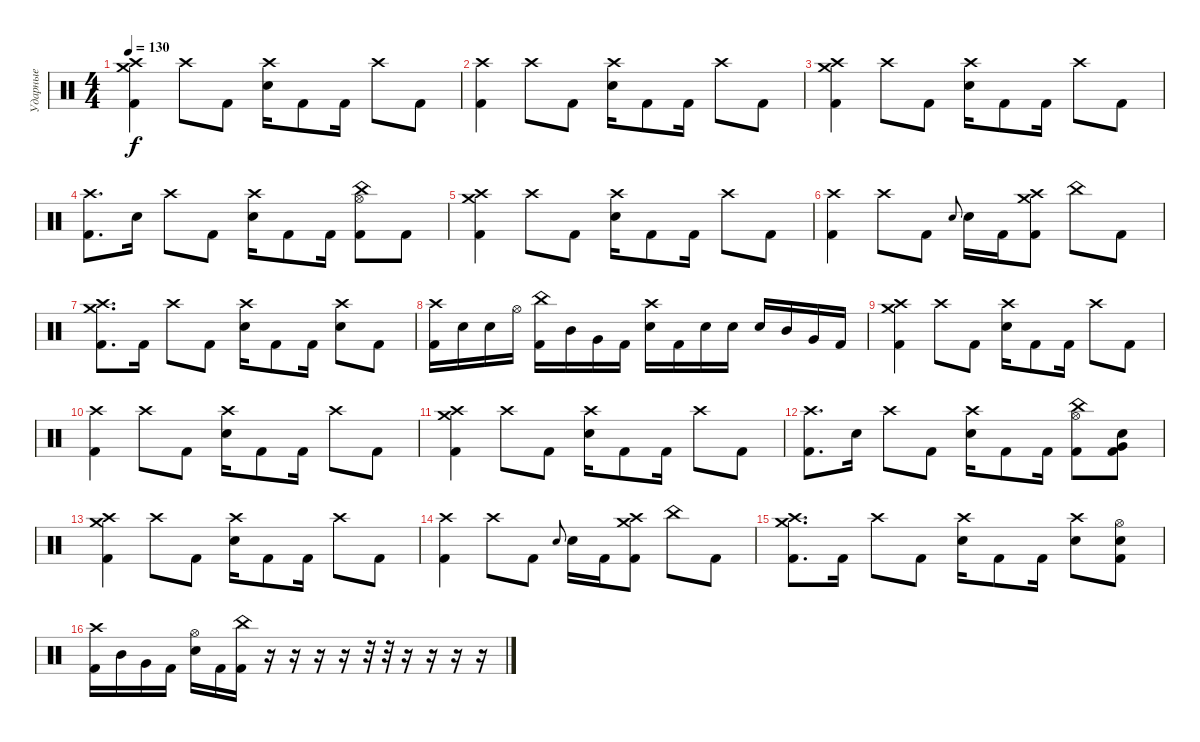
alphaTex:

\track ("Ударные" "Ударные") {instrument percussion}
\staff {score}
\articulation defaults
\ts (4 4)
\tempo 130
\clef neutral
\ks c
("Crash high (hit)" "Crash medium (hit)" "Kick (hit) 2").4{dy f} "Crash high (hit)".8 "Kick (hit) 2".8 ("Crash high (hit)" "Electric Snare (hit)").16 "Kick (hit) 2".8 "Kick (hit) 2".16 "Crash high (hit)".8 "Kick (hit) 2".8 |
("Crash high (hit)" "Kick (hit) 2").4 "Crash high (hit)".8 "Kick (hit) 2".8 ("Crash high (hit)" "Electric Snare (hit)").16 "Kick (hit) 2".8 "Kick (hit) 2".16 "Crash high (hit)".8 "Kick (hit) 2".8 |
("Crash high (hit)" "Crash medium (hit)" "Kick (hit) 2").4 "Crash high (hit)".8 "Kick (hit) 2".8 ("Crash high (hit)" "Electric Snare (hit)").16 "Kick (hit) 2".8 "Kick (hit) 2".16 "Crash high (hit)".8 "Kick (hit) 2".8 |
("Crash high (hit)" "Kick (hit) 2").8{d} "Electric Snare (hit)".16 "Crash high (hit)".8 "Kick (hit) 2".8 ("Crash high (hit)" "Electric Snare (hit)").16 "Kick (hit) 2".8 "Kick (hit) 2".16 ("Hi-Hat (open)" "China (hit)" "Kick (hit) 2").8 "Kick (hit) 2".8 |
("Crash high (hit)" "Crash medium (hit)" "Kick (hit) 2").4 "Crash high (hit)".8 "Kick (hit) 2".8 ("Crash high (hit)" "Electric Snare (hit)").16 "Kick (hit) 2".8 "Kick (hit) 2".16 "Crash high (hit)".8 "Kick (hit) 2".8 |
("Crash high (hit)" "Kick (hit) 2").4 "Crash high (hit)".8 "Kick (hit) 2".8 "Electric Snare (hit)".8{gr onbeat} "Electric Snare (hit)".16 "Kick (hit) 2".16 ("Crash medium (hit)" "Crash high (hit)" "Kick (hit) 2").8 "China (hit)".8 "Kick (hit) 2".8 |
("Crash high (hit)" "Crash medium (hit)" "Kick (hit) 2").8{d} "Kick (hit) 2".16 "Crash high (hit)".8 "Kick (hit) 2".8 ("Crash high (hit)" "Electric Snare (hit)").16 "Kick (hit) 2".8 "Kick (hit) 2".16 ("Crash high (hit)" "Electric Snare (hit)").8 "Kick (hit) 2".8 |
("Crash high (hit)" "Kick (hit) 2").16 "Electric Snare (hit)".16 "Electric Snare (hit)".16 "Hi-Hat (open)".16 ("China (hit)" "Kick (hit) 2").16 "Mid Tom (hit)".16 "Very Low Tom (hit)".16 "Kick (hit) 2".16 ("Crash high (hit)" "Electric Snare (hit)").16 "Kick (hit) 2".16 "Electric Snare (hit)".16 "Electric Snare (hit)".16 "Electric Snare (hit)".16 "Mid Tom (hit)".16 "Very Low Tom (hit)".16 "Kick (hit) 2".16 |
("Crash high (hit)" "Crash medium (hit)" "Kick (hit) 2").4 "Crash high (hit)".8 "Kick (hit) 2".8 ("Crash high (hit)" "Electric Snare (hit)").16 "Kick (hit) 2".8 "Kick (hit) 2".16 "Crash high (hit)".8 "Kick (hit) 2".8 |
("Crash high (hit)" "Kick (hit) 2").4 "Crash high (hit)".8 "Kick (hit) 2".8 ("Crash high (hit)" "Electric Snare (hit)").16 "Kick (hit) 2".8 "Kick (hit) 2".16 "Crash high (hit)".8 "Kick (hit) 2".8 |
("Crash high (hit)" "Crash medium (hit)" "Kick (hit) 2").4 "Crash high (hit)".8 "Kick (hit) 2".8 ("Crash high (hit)" "Electric Snare (hit)").16 "Kick (hit) 2".8 "Kick (hit) 2".16 "Crash high (hit)".8 "Kick (hit) 2".8 |
("Crash high (hit)" "Kick (hit) 2").8{d} "Electric Snare (hit)".16 "Crash high (hit)".8 "Kick (hit) 2".8 ("Crash high (hit)" "Electric Snare (hit)").16 "Kick (hit) 2".8 "Kick (hit) 2".16 ("Hi-Hat (open)" "China (hit)" "Kick (hit) 2").8 ("Electric Snare (hit)" "Very Low Tom (hit)" "Kick (hit) 2").8 |
("Crash high (hit)" "Crash medium (hit)" "Kick (hit) 2").4 "Crash high (hit)".8 "Kick (hit) 2".8 ("Crash high (hit)" "Electric Snare (hit)").16 "Kick (hit) 2".8 "Kick (hit) 2".16 "Crash high (hit)".8 "Kick (hit) 2".8 |
("Crash high (hit)" "Kick (hit) 2").4 "Crash high (hit)".8 "Kick (hit) 2".8 "Electric Snare (hit)".8{gr onbeat} "Electric Snare (hit)".16 "Kick (hit) 2".16 ("Crash medium (hit)" "Crash high (hit)" "Kick (hit) 2").8 "China (hit)".8 "Kick (hit) 2".8 |
("Crash high (hit)" "Crash medium (hit)" "Kick (hit) 2").8{d} "Kick (hit) 2".16 "Crash high (hit)".8 "Kick (hit) 2".8 ("Crash high (hit)" "Electric Snare (hit)").16 "Kick (hit) 2".8 "Kick (hit) 2".16 ("Crash high (hit)" "Electric Snare (hit)").8 ("Hi-Hat (open)" "Electric Snare (hit)" "Kick (hit) 2").8 |
("Crash high (hit)" "Kick (hit) 2").16 "Mid Tom (hit)".16 "Very Low Tom (hit)".16 "Kick (hit) 2".16 ("Hi-Hat (open)" "Electric Snare (hit)").16 "Kick (hit) 2".16 ("China (hit)" "Kick (hit) 2").16 r.16 r.16 r.16 r.16 r.32 r.32 r.16 r.16 r.16 r.16
